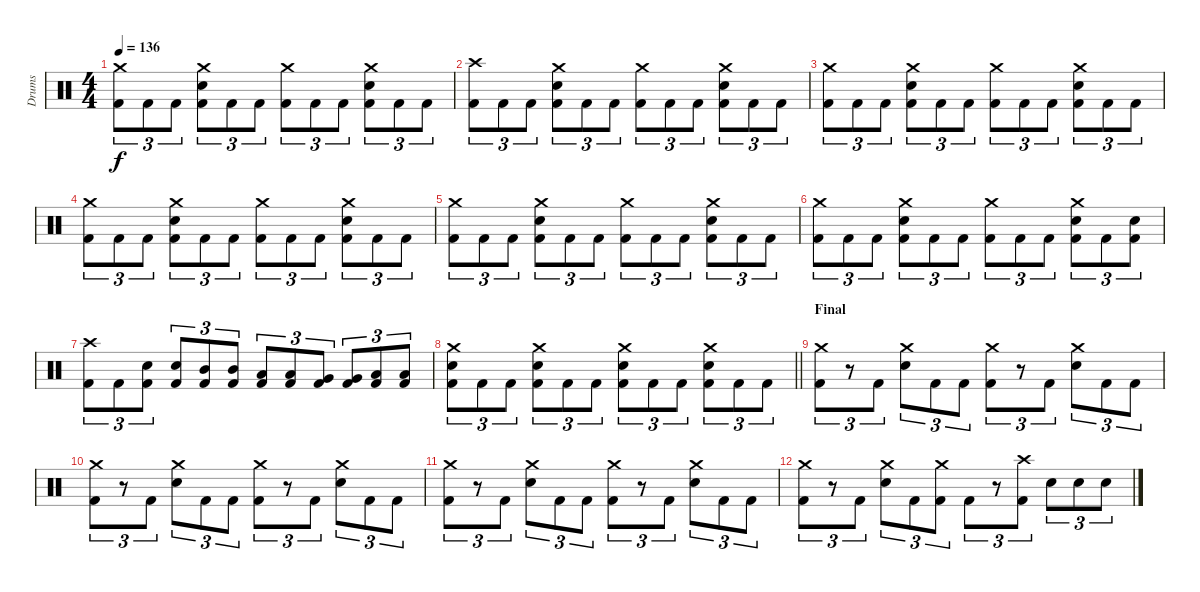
\track ("Drums" "Drums") {instrument percussion}
\staff {score}
\articulation defaults
\ts (4 4)
\tempo 136
\clef neutral
\ks c
("Crash medium (hit)" "Kick (hit) 2").8{tu (3 2) dy f} "Kick (hit) 2".8{tu (3 2)} "Kick (hit) 2".8{tu (3 2)} ("Crash medium (hit)" "Electric Snare (hit)" "Kick (hit) 2").8{tu (3 2)} "Kick (hit) 2".8{tu (3 2)} "Kick (hit) 2".8{tu (3 2)} ("Crash medium (hit)" "Kick (hit) 2").8{tu (3 2)} "Kick (hit) 2".8{tu (3 2)} "Kick (hit) 2".8{tu (3 2)} ("Crash medium (hit)" "Electric Snare (hit)" "Kick (hit) 2").8{tu (3 2)} "Kick (hit) 2".8{tu (3 2)} "Kick (hit) 2".8{tu (3 2)} |
("Crash high (hit)" "Kick (hit) 2").8{tu (3 2)} "Kick (hit) 2".8{tu (3 2)} "Kick (hit) 2".8{tu (3 2)} ("Crash medium (hit)" "Electric Snare (hit)" "Kick (hit) 2").8{tu (3 2)} "Kick (hit) 2".8{tu (3 2)} "Kick (hit) 2".8{tu (3 2)} ("Crash medium (hit)" "Kick (hit) 2").8{tu (3 2)} "Kick (hit) 2".8{tu (3 2)} "Kick (hit) 2".8{tu (3 2)} ("Crash medium (hit)" "Electric Snare (hit)" "Kick (hit) 2").8{tu (3 2)} "Kick (hit) 2".8{tu (3 2)} "Kick (hit) 2".8{tu (3 2)} |
("Crash medium (hit)" "Kick (hit) 2").8{tu (3 2)} "Kick (hit) 2".8{tu (3 2)} "Kick (hit) 2".8{tu (3 2)} ("Crash medium (hit)" "Electric Snare (hit)" "Kick (hit) 2").8{tu (3 2)} "Kick (hit) 2".8{tu (3 2)} "Kick (hit) 2".8{tu (3 2)} ("Crash medium (hit)" "Kick (hit) 2").8{tu (3 2)} "Kick (hit) 2".8{tu (3 2)} "Kick (hit) 2".8{tu (3 2)} ("Crash medium (hit)" "Electric Snare (hit)" "Kick (hit) 2").8{tu (3 2)} "Kick (hit) 2".8{tu (3 2)} "Kick (hit) 2".8{tu (3 2)} |
("Crash medium (hit)" "Kick (hit) 2").8{tu (3 2)} "Kick (hit) 2".8{tu (3 2)} "Kick (hit) 2".8{tu (3 2)} ("Crash medium (hit)" "Electric Snare (hit)" "Kick (hit) 2").8{tu (3 2)} "Kick (hit) 2".8{tu (3 2)} "Kick (hit) 2".8{tu (3 2)} ("Crash medium (hit)" "Kick (hit) 2").8{tu (3 2)} "Kick (hit) 2".8{tu (3 2)} "Kick (hit) 2".8{tu (3 2)} ("Crash medium (hit)" "Electric Snare (hit)" "Kick (hit) 2").8{tu (3 2)} "Kick (hit) 2".8{tu (3 2)} "Kick (hit) 2".8{tu (3 2)} |
("Crash medium (hit)" "Kick (hit) 2").8{tu (3 2)} "Kick (hit) 2".8{tu (3 2)} "Kick (hit) 2".8{tu (3 2)} ("Crash medium (hit)" "Electric Snare (hit)" "Kick (hit) 2").8{tu (3 2)} "Kick (hit) 2".8{tu (3 2)} "Kick (hit) 2".8{tu (3 2)} ("Crash medium (hit)" "Kick (hit) 2").8{tu (3 2)} "Kick (hit) 2".8{tu (3 2)} "Kick (hit) 2".8{tu (3 2)} ("Crash medium (hit)" "Electric Snare (hit)" "Kick (hit) 2").8{tu (3 2)} "Kick (hit) 2".8{tu (3 2)} "Kick (hit) 2".8{tu (3 2)} |
("Crash medium (hit)" "Kick (hit) 2").8{tu (3 2)} "Kick (hit) 2".8{tu (3 2)} "Kick (hit) 2".8{tu (3 2)} ("Crash medium (hit)" "Electric Snare (hit)" "Kick (hit) 2").8{tu (3 2)} "Kick (hit) 2".8{tu (3 2)} "Kick (hit) 2".8{tu (3 2)} ("Crash medium (hit)" "Kick (hit) 2").8{tu (3 2)} "Kick (hit) 2".8{tu (3 2)} "Kick (hit) 2".8{tu (3 2)} ("Crash medium (hit)" "Electric Snare (hit)" "Kick (hit) 2").8{tu (3 2)} "Kick (hit) 2".8{tu (3 2)} ("Electric Snare (hit)" "Kick (hit) 2").8{tu (3 2)} |
("Crash high (hit)" "Kick (hit) 2").8{tu (3 2)} "Kick (hit) 2".8{tu (3 2)} ("Electric Snare (hit)" "Kick (hit) 2").8{tu (3 2)} ("Electric Snare (hit)" "Kick (hit) 2").8{tu (3 2)} ("Mid Tom (hit)" "Kick (hit) 2").8{tu (3 2)} ("Mid Tom (hit)" "Kick (hit) 2").8{tu (3 2)} ("Low Tom (hit)" "Kick (hit) 2").8{tu (3 2)} ("Low Tom (hit)" "Kick (hit) 2").8{tu (3 2)} ("Very Low Tom (hit)" "Kick (hit) 2").8{tu (3 2)} ("Very Low Tom (hit)" "Kick (hit) 2").8{tu (3 2)} ("Low Floor Tom (hit)" "Kick (hit) 2").8{tu (3 2)} ("Low Floor Tom (hit)" "Kick (hit) 2").8{tu (3 2)} |
\barLineRight lightlight
("Crash medium (hit)" "Electric Snare (hit)" "Kick (hit) 2").8{tu (3 2)} "Kick (hit) 2".8{tu (3 2)} "Kick (hit) 2".8{tu (3 2)} ("Crash medium (hit)" "Electric Snare (hit)" "Kick (hit) 2").8{tu (3 2)} "Kick (hit) 2".8{tu (3 2)} "Kick (hit) 2".8{tu (3 2)} ("Crash medium (hit)" "Electric Snare (hit)" "Kick (hit) 2").8{tu (3 2)} "Kick (hit) 2".8{tu (3 2)} "Kick (hit) 2".8{tu (3 2)} ("Crash medium (hit)" "Electric Snare (hit)" "Kick (hit) 2").8{tu (3 2)} "Kick (hit) 2".8{tu (3 2)} "Kick (hit) 2".8{tu (3 2)} |
\section ("" "Final")
("Crash medium (hit)" "Kick (hit) 2").8{tu (3 2)} r.8{tu (3 2)} "Kick (hit) 2".8{tu (3 2)} ("Crash medium (hit)" "Electric Snare (hit)").8{tu (3 2)} "Kick (hit) 2".8{tu (3 2)} "Kick (hit) 2".8{tu (3 2)} ("Crash medium (hit)" "Kick (hit) 2").8{tu (3 2)} r.8{tu (3 2)} "Kick (hit) 2".8{tu (3 2)} ("Crash medium (hit)" "Electric Snare (hit)").8{tu (3 2)} "Kick (hit) 2".8{tu (3 2)} "Kick (hit) 2".8{tu (3 2)} |
("Crash medium (hit)" "Kick (hit) 2").8{tu (3 2)} r.8{tu (3 2)} "Kick (hit) 2".8{tu (3 2)} ("Crash medium (hit)" "Electric Snare (hit)").8{tu (3 2)} "Kick (hit) 2".8{tu (3 2)} "Kick (hit) 2".8{tu (3 2)} ("Crash medium (hit)" "Kick (hit) 2").8{tu (3 2)} r.8{tu (3 2)} "Kick (hit) 2".8{tu (3 2)} ("Crash medium (hit)" "Electric Snare (hit)").8{tu (3 2)} "Kick (hit) 2".8{tu (3 2)} "Kick (hit) 2".8{tu (3 2)} |
("Crash medium (hit)" "Kick (hit) 2").8{tu (3 2)} r.8{tu (3 2)} "Kick (hit) 2".8{tu (3 2)} ("Crash medium (hit)" "Electric Snare (hit)").8{tu (3 2)} "Kick (hit) 2".8{tu (3 2)} "Kick (hit) 2".8{tu (3 2)} ("Crash medium (hit)" "Kick (hit) 2").8{tu (3 2)} r.8{tu (3 2)} "Kick (hit) 2".8{tu (3 2)} ("Crash medium (hit)" "Electric Snare (hit)").8{tu (3 2)} "Kick (hit) 2".8{tu (3 2)} "Kick (hit) 2".8{tu (3 2)} |
("Crash medium (hit)" "Kick (hit) 2").8{tu (3 2)} r.8{tu (3 2)} "Kick (hit) 2".8{tu (3 2)} ("Crash medium (hit)" "Electric Snare (hit)").8{tu (3 2)} "Kick (hit) 2".8{tu (3 2)} ("Crash medium (hit)" "Kick (hit) 2").8{tu (3 2)} "Kick (hit) 2".8{tu (3 2)} r.8{tu (3 2)} ("Crash high (hit)" "Kick (hit) 2").8{tu (3 2)} "Electric Snare (hit)".8{tu (3 2)} "Electric Snare (hit)".8{tu (3 2)} "Electric Snare (hit)".8{tu (3 2)}
